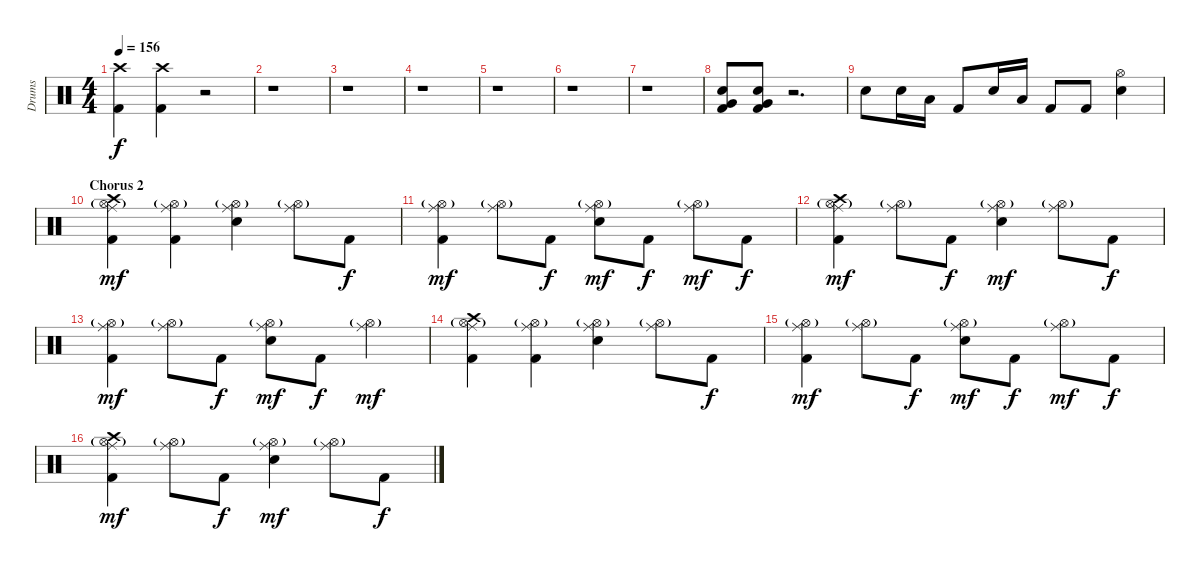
\track ("Drums" "Drums") {instrument percussion}
\staff {score}
\articulation defaults
\ts (4 4)
\tempo 156
\clef neutral
\ks c
("Crash high (hit)" "Kick (hit) 2").4{dy f} ("Crash high (hit)" "Kick (hit) 2").4 r.2 |
r.1 |
r.1 |
r.1 |
r.1 |
r.1 |
r.1 |
("Electric Snare (hit)" "Very Low Tom (hit)" "Kick (hit) 2").8 ("Electric Snare (hit)" "Very Low Tom (hit)" "Kick (hit) 2").8 r.2{d} |
"Electric Snare (hit)".8 "Electric Snare (hit)".16 "Low Tom (hit)".16 "Kick (hit) 2".8 "Electric Snare (hit)".16 "Low Tom (hit)".16 "Kick (hit) 2".8 "Kick (hit) 2".8 ("Hi-Hat (open)" "Electric Snare (hit)").4 |
\section ("" "Chorus 2")
("Crash high (hit)" "Ride (middle)" "Hi-Hat (open)"{g} "Kick (hit) 2").4{dy mf} ("Ride (middle)" "Hi-Hat (open)"{g} "Kick (hit) 2").4 ("Ride (middle)" "Hi-Hat (open)"{g} "Electric Snare (hit)").4 ("Ride (middle)" "Hi-Hat (open)"{g}).8 "Kick (hit) 2".8{dy f} |
("Ride (middle)" "Hi-Hat (open)"{g} "Kick (hit) 2").4{dy mf} ("Ride (middle)" "Hi-Hat (open)"{g}).8 "Kick (hit) 2".8{dy f} ("Ride (middle)" "Hi-Hat (open)"{g} "Electric Snare (hit)").8{dy mf} "Kick (hit) 2".8{dy f} ("Ride (middle)" "Hi-Hat (open)"{g}).8{dy mf} "Kick (hit) 2".8{dy f} |
("Crash high (hit)" "Ride (middle)" "Hi-Hat (open)"{g} "Kick (hit) 2").4{dy mf} ("Ride (middle)" "Hi-Hat (open)"{g}).8 "Kick (hit) 2".8{dy f} ("Ride (middle)" "Hi-Hat (open)"{g} "Electric Snare (hit)").4{dy mf} ("Ride (middle)" "Hi-Hat (open)"{g}).8 "Kick (hit) 2".8{dy f} |
("Ride (middle)" "Hi-Hat (open)"{g} "Kick (hit) 2").4{dy mf} ("Ride (middle)" "Hi-Hat (open)"{g}).8 "Kick (hit) 2".8{dy f} ("Ride (middle)" "Hi-Hat (open)"{g} "Electric Snare (hit)").8{dy mf} "Kick (hit) 2".8{dy f} ("Ride (middle)" "Hi-Hat (open)"{g}).4{dy mf} |
("Crash high (hit)" "Ride (middle)" "Hi-Hat (open)"{g} "Kick (hit) 2").4 ("Ride (middle)" "Hi-Hat (open)"{g} "Kick (hit) 2").4 ("Ride (middle)" "Hi-Hat (open)"{g} "Electric Snare (hit)").4 ("Ride (middle)" "Hi-Hat (open)"{g}).8 "Kick (hit) 2".8{dy f} |
("Ride (middle)" "Hi-Hat (open)"{g} "Kick (hit) 2").4{dy mf} ("Ride (middle)" "Hi-Hat (open)"{g}).8 "Kick (hit) 2".8{dy f} ("Ride (middle)" "Hi-Hat (open)"{g} "Electric Snare (hit)").8{dy mf} "Kick (hit) 2".8{dy f} ("Ride (middle)" "Hi-Hat (open)"{g}).8{dy mf} "Kick (hit) 2".8{dy f} |
("Crash high (hit)" "Ride (middle)" "Hi-Hat (open)"{g} "Kick (hit) 2").4{dy mf} ("Ride (middle)" "Hi-Hat (open)"{g}).8 "Kick (hit) 2".8{dy f} ("Ride (middle)" "Hi-Hat (open)"{g} "Electric Snare (hit)").4{dy mf} ("Ride (middle)" "Hi-Hat (open)"{g}).8 "Kick (hit) 2".8{dy f}
